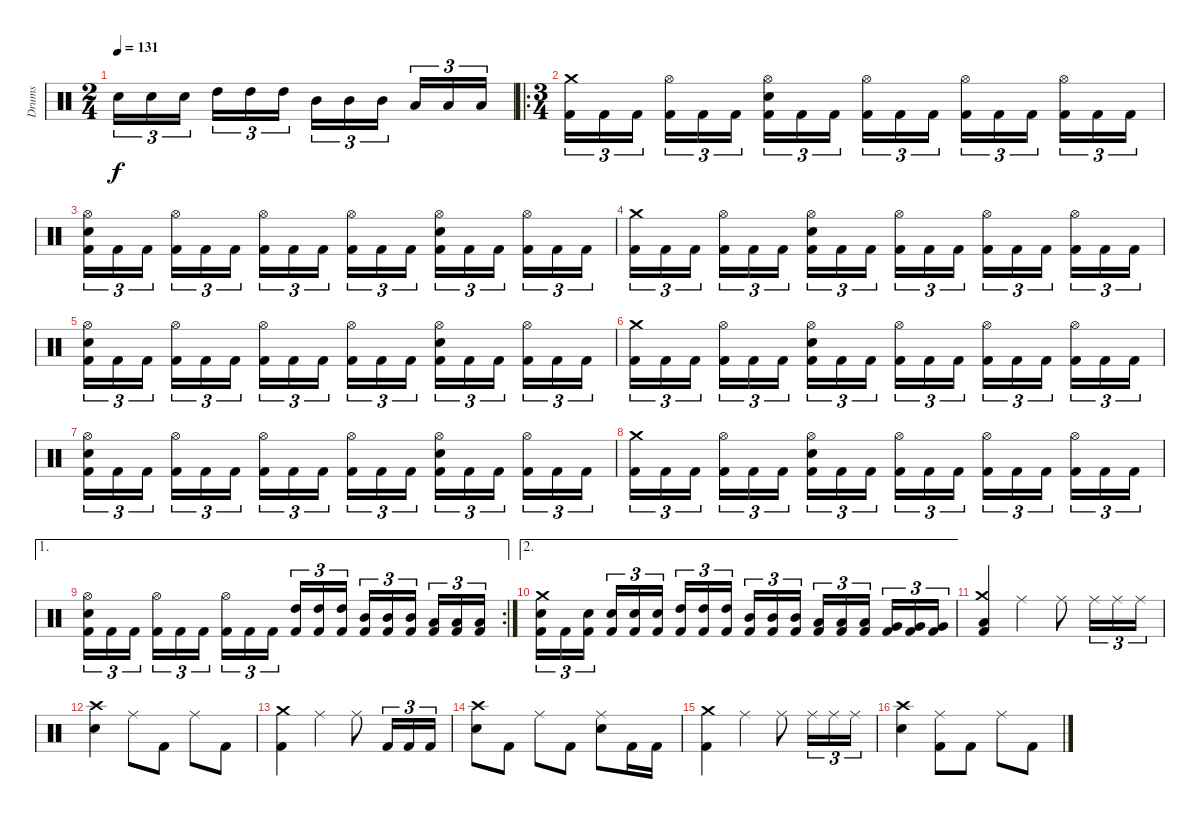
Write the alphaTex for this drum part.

\track ("Drums" "Drums") {instrument percussion}
\staff {score}
\articulation defaults
\ts (2 4)
\tempo 131
\clef neutral
\ks c "Electric Snare (hit)".16{tu (3 2) dy f} "Electric Snare (hit)".16{tu (3 2)} "Electric Snare (hit)".16{tu (3 2)} "High Tom (hit)".16{tu (3 2)} "High Tom (hit)".16{tu (3 2)} "High Tom (hit)".16{tu (3 2)} "Mid Tom (hit)".16{tu (3 2)} "Mid Tom (hit)".16{tu (3 2)} "Mid Tom (hit)".16{tu (3 2)} "Low Tom (hit)".16{tu (3 2)} "Low Tom (hit)".16{tu (3 2)} "Low Tom (hit)".16{tu (3 2)}
|
\ro
\ts (3 4)
("Kick (hit) 2" "Crash medium (hit)").16{tu (3 2)} "Kick (hit) 2".16{tu (3 2)} "Kick (hit) 2".16{tu (3 2)} ("Kick (hit) 2" "Hi-Hat (open)").16{tu (3 2)} "Kick (hit) 2".16{tu (3 2)} "Kick (hit) 2".16{tu (3 2)} ("Kick (hit) 2" "Electric Snare (hit)" "Hi-Hat (open)").16{tu (3 2)} "Kick (hit) 2".16{tu (3 2)} "Kick (hit) 2".16{tu (3 2)} ("Kick (hit) 2" "Hi-Hat (open)").16{tu (3 2)} "Kick (hit) 2".16{tu (3 2)} "Kick (hit) 2".16{tu (3 2)} ("Kick (hit) 2" "Hi-Hat (open)").16{tu (3 2)} "Kick (hit) 2".16{tu (3 2)} "Kick (hit) 2".16{tu (3 2)} ("Kick (hit) 2" "Hi-Hat (open)").16{tu (3 2)} "Kick (hit) 2".16{tu (3 2)} "Kick (hit) 2".16{tu (3 2)} |
("Kick (hit) 2" "Electric Snare (hit)" "Hi-Hat (open)").16{tu (3 2)} "Kick (hit) 2".16{tu (3 2)} "Kick (hit) 2".16{tu (3 2)} ("Kick (hit) 2" "Hi-Hat (open)").16{tu (3 2)} "Kick (hit) 2".16{tu (3 2)} "Kick (hit) 2".16{tu (3 2)} ("Kick (hit) 2" "Hi-Hat (open)").16{tu (3 2)} "Kick (hit) 2".16{tu (3 2)} "Kick (hit) 2".16{tu (3 2)} ("Kick (hit) 2" "Hi-Hat (open)").16{tu (3 2)} "Kick (hit) 2".16{tu (3 2)} "Kick (hit) 2".16{tu (3 2)} ("Kick (hit) 2" "Electric Snare (hit)" "Hi-Hat (open)").16{tu (3 2)} "Kick (hit) 2".16{tu (3 2)} "Kick (hit) 2".16{tu (3 2)} ("Kick (hit) 2" "Hi-Hat (open)").16{tu (3 2)} "Kick (hit) 2".16{tu (3 2)} "Kick (hit) 2".16{tu (3 2)} |
("Kick (hit) 2" "Crash medium (hit)").16{tu (3 2)} "Kick (hit) 2".16{tu (3 2)} "Kick (hit) 2".16{tu (3 2)} ("Kick (hit) 2" "Hi-Hat (open)").16{tu (3 2)} "Kick (hit) 2".16{tu (3 2)} "Kick (hit) 2".16{tu (3 2)} ("Kick (hit) 2" "Electric Snare (hit)" "Hi-Hat (open)").16{tu (3 2)} "Kick (hit) 2".16{tu (3 2)} "Kick (hit) 2".16{tu (3 2)} ("Kick (hit) 2" "Hi-Hat (open)").16{tu (3 2)} "Kick (hit) 2".16{tu (3 2)} "Kick (hit) 2".16{tu (3 2)} ("Kick (hit) 2" "Hi-Hat (open)").16{tu (3 2)} "Kick (hit) 2".16{tu (3 2)} "Kick (hit) 2".16{tu (3 2)} ("Kick (hit) 2" "Hi-Hat (open)").16{tu (3 2)} "Kick (hit) 2".16{tu (3 2)} "Kick (hit) 2".16{tu (3 2)} |
("Kick (hit) 2" "Electric Snare (hit)" "Hi-Hat (open)").16{tu (3 2)} "Kick (hit) 2".16{tu (3 2)} "Kick (hit) 2".16{tu (3 2)} ("Kick (hit) 2" "Hi-Hat (open)").16{tu (3 2)} "Kick (hit) 2".16{tu (3 2)} "Kick (hit) 2".16{tu (3 2)} ("Kick (hit) 2" "Hi-Hat (open)").16{tu (3 2)} "Kick (hit) 2".16{tu (3 2)} "Kick (hit) 2".16{tu (3 2)} ("Kick (hit) 2" "Hi-Hat (open)").16{tu (3 2)} "Kick (hit) 2".16{tu (3 2)} "Kick (hit) 2".16{tu (3 2)} ("Kick (hit) 2" "Electric Snare (hit)" "Hi-Hat (open)").16{tu (3 2)} "Kick (hit) 2".16{tu (3 2)} "Kick (hit) 2".16{tu (3 2)} ("Kick (hit) 2" "Hi-Hat (open)").16{tu (3 2)} "Kick (hit) 2".16{tu (3 2)} "Kick (hit) 2".16{tu (3 2)} |
("Kick (hit) 2" "Crash medium (hit)").16{tu (3 2)} "Kick (hit) 2".16{tu (3 2)} "Kick (hit) 2".16{tu (3 2)} ("Kick (hit) 2" "Hi-Hat (open)").16{tu (3 2)} "Kick (hit) 2".16{tu (3 2)} "Kick (hit) 2".16{tu (3 2)} ("Kick (hit) 2" "Electric Snare (hit)" "Hi-Hat (open)").16{tu (3 2)} "Kick (hit) 2".16{tu (3 2)} "Kick (hit) 2".16{tu (3 2)} ("Kick (hit) 2" "Hi-Hat (open)").16{tu (3 2)} "Kick (hit) 2".16{tu (3 2)} "Kick (hit) 2".16{tu (3 2)} ("Kick (hit) 2" "Hi-Hat (open)").16{tu (3 2)} "Kick (hit) 2".16{tu (3 2)} "Kick (hit) 2".16{tu (3 2)} ("Kick (hit) 2" "Hi-Hat (open)").16{tu (3 2)} "Kick (hit) 2".16{tu (3 2)} "Kick (hit) 2".16{tu (3 2)} |
("Kick (hit) 2" "Electric Snare (hit)" "Hi-Hat (open)").16{tu (3 2)} "Kick (hit) 2".16{tu (3 2)} "Kick (hit) 2".16{tu (3 2)} ("Kick (hit) 2" "Hi-Hat (open)").16{tu (3 2)} "Kick (hit) 2".16{tu (3 2)} "Kick (hit) 2".16{tu (3 2)} ("Kick (hit) 2" "Hi-Hat (open)").16{tu (3 2)} "Kick (hit) 2".16{tu (3 2)} "Kick (hit) 2".16{tu (3 2)} ("Kick (hit) 2" "Hi-Hat (open)").16{tu (3 2)} "Kick (hit) 2".16{tu (3 2)} "Kick (hit) 2".16{tu (3 2)} ("Kick (hit) 2" "Electric Snare (hit)" "Hi-Hat (open)").16{tu (3 2)} "Kick (hit) 2".16{tu (3 2)} "Kick (hit) 2".16{tu (3 2)} ("Kick (hit) 2" "Hi-Hat (open)").16{tu (3 2)} "Kick (hit) 2".16{tu (3 2)} "Kick (hit) 2".16{tu (3 2)} |
("Kick (hit) 2" "Crash medium (hit)").16{tu (3 2)} "Kick (hit) 2".16{tu (3 2)} "Kick (hit) 2".16{tu (3 2)} ("Kick (hit) 2" "Hi-Hat (open)").16{tu (3 2)} "Kick (hit) 2".16{tu (3 2)} "Kick (hit) 2".16{tu (3 2)} ("Kick (hit) 2" "Electric Snare (hit)" "Hi-Hat (open)").16{tu (3 2)} "Kick (hit) 2".16{tu (3 2)} "Kick (hit) 2".16{tu (3 2)} ("Kick (hit) 2" "Hi-Hat (open)").16{tu (3 2)} "Kick (hit) 2".16{tu (3 2)} "Kick (hit) 2".16{tu (3 2)} ("Kick (hit) 2" "Hi-Hat (open)").16{tu (3 2)} "Kick (hit) 2".16{tu (3 2)} "Kick (hit) 2".16{tu (3 2)} ("Kick (hit) 2" "Hi-Hat (open)").16{tu (3 2)} "Kick (hit) 2".16{tu (3 2)} "Kick (hit) 2".16{tu (3 2)} |
\ae 1
\rc 2
("Kick (hit) 2" "Electric Snare (hit)" "Hi-Hat (open)").16{tu (3 2)} "Kick (hit) 2".16{tu (3 2)} "Kick (hit) 2".16{tu (3 2)} ("Kick (hit) 2" "Hi-Hat (open)").16{tu (3 2)} "Kick (hit) 2".16{tu (3 2)} "Kick (hit) 2".16{tu (3 2)} ("Kick (hit) 2" "Hi-Hat (open)").16{tu (3 2)} "Kick (hit) 2".16{tu (3 2)} "Kick (hit) 2".16{tu (3 2)} ("Kick (hit) 2" "High Tom (hit)").16{tu (3 2)} ("Kick (hit) 2" "High Tom (hit)").16{tu (3 2)} ("Kick (hit) 2" "High Tom (hit)").16{tu (3 2)} ("Kick (hit) 2" "Mid Tom (hit)").16{tu (3 2)} ("Kick (hit) 2" "Mid Tom (hit)").16{tu (3 2)} ("Kick (hit) 2" "Mid Tom (hit)").16{tu (3 2)} ("Kick (hit) 2" "Low Tom (hit)").16{tu (3 2)} ("Kick (hit) 2" "Low Tom (hit)").16{tu (3 2)} ("Kick (hit) 2" "Low Tom (hit)").16{tu (3 2)} |
\ae 2
("Kick (hit) 2" "Electric Snare (hit)" "Crash medium (hit)").16{tu (3 2)} "Kick (hit) 2".16{tu (3 2)} ("Kick (hit) 2" "Electric Snare (hit)").16{tu (3 2)} ("Kick (hit) 2" "Electric Snare (hit)").16{tu (3 2)} ("Kick (hit) 2" "Electric Snare (hit)").16{tu (3 2)} ("Kick (hit) 2" "Electric Snare (hit)").16{tu (3 2)} ("Kick (hit) 2" "High Tom (hit)").16{tu (3 2)} ("Kick (hit) 2" "High Tom (hit)").16{tu (3 2)} ("Kick (hit) 2" "High Tom (hit)").16{tu (3 2)} ("Kick (hit) 2" "Mid Tom (hit)").16{tu (3 2)} ("Kick (hit) 2" "Mid Tom (hit)").16{tu (3 2)} ("Kick (hit) 2" "Mid Tom (hit)").16{tu (3 2)} ("Kick (hit) 2" "Low Tom (hit)").16{tu (3 2)} ("Kick (hit) 2" "Low Tom (hit)").16{tu (3 2)} ("Kick (hit) 2" "Low Tom (hit)").16{tu (3 2)} ("Kick (hit) 2" "Very Low Tom (hit)").16{tu (3 2)} ("Kick (hit) 2" "Very Low Tom (hit)").16{tu (3 2)} ("Kick (hit) 2" "Very Low Tom (hit)").16{tu (3 2)} |
("Kick (hit) 2" "Low Floor Tom (hit)" "Crash medium (hit)").4 "Ride (middle)".4 "Ride (middle)".8 "Ride (middle)".16{tu (3 2)} "Ride (middle)".16{tu (3 2)} "Ride (middle)".16{tu (3 2)} |
("Electric Snare (hit)" "Crash high (hit)").4 "Ride (middle)".8 "Kick (hit) 2".8 "Ride (middle)".8 "Kick (hit) 2".8 |
("Kick (hit) 2" "Crash medium (hit)").4 "Ride (middle)".4 "Ride (middle)".8 "Kick (hit) 2".16{tu (3 2)} "Kick (hit) 2".16{tu (3 2)} "Kick (hit) 2".16{tu (3 2)} |
("Electric Snare (hit)" "Crash high (hit)").8 "Kick (hit) 2".8 "Ride (middle)".8 "Kick (hit) 2".8 ("Electric Snare (hit)" "Ride (middle)").8 "Kick (hit) 2".16 "Kick (hit) 2".16 |
("Kick (hit) 2" "Crash medium (hit)").4 "Ride (middle)".4 "Ride (middle)".8 "Ride (middle)".16{tu (3 2)} "Ride (middle)".16{tu (3 2)} "Ride (middle)".16{tu (3 2)} |
("Electric Snare (hit)" "Crash high (hit)").4 ("Kick (hit) 2" "Ride (middle)").8 "Kick (hit) 2".8 "Ride (middle)".8 "Kick (hit) 2".8
